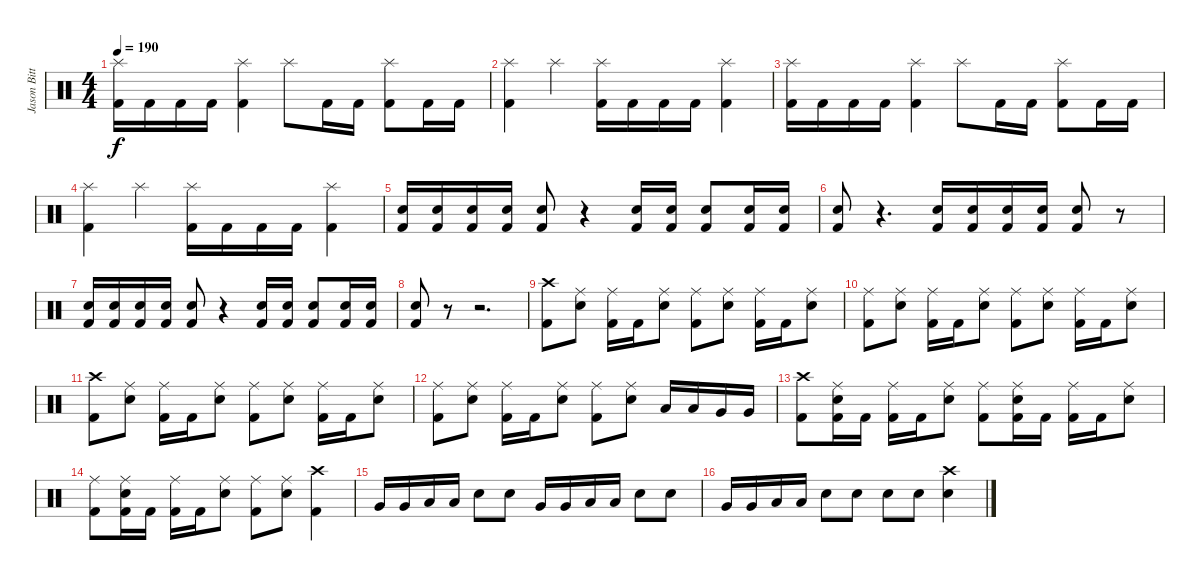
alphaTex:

\track ("Jason Bittner" "Jason Bitt") {instrument percussion}
\staff {score}
\articulation defaults
\ts (4 4)
\tempo 190
\clef neutral
\ks c
("Splash (hit)" "Kick (hit) 2").16{dy f} "Kick (hit) 2".16 "Kick (hit) 2".16 "Kick (hit) 2".16 ("Splash (hit)" "Kick (hit) 2").4 "Splash (hit)".8 "Kick (hit) 2".16 "Kick (hit) 2".16 ("Splash (hit)" "Kick (hit) 2").8 "Kick (hit) 2".16 "Kick (hit) 2".16 |
("Splash (hit)" "Kick (hit) 2").4 "Splash (hit)".4 ("Splash (hit)" "Kick (hit) 2").16 "Kick (hit) 2".16 "Kick (hit) 2".16 "Kick (hit) 2".16 ("Splash (hit)" "Kick (hit) 2").4 |
("Splash (hit)" "Kick (hit) 2").16 "Kick (hit) 2".16 "Kick (hit) 2".16 "Kick (hit) 2".16 ("Splash (hit)" "Kick (hit) 2").4 "Splash (hit)".8 "Kick (hit) 2".16 "Kick (hit) 2".16 ("Splash (hit)" "Kick (hit) 2").8 "Kick (hit) 2".16 "Kick (hit) 2".16 |
("Splash (hit)" "Kick (hit) 2").4 "Splash (hit)".4 ("Splash (hit)" "Kick (hit) 2").16 "Kick (hit) 2".16 "Kick (hit) 2".16 "Kick (hit) 2".16 ("Splash (hit)" "Kick (hit) 2").4 |
("Electric Snare (hit)" "Kick (hit) 2").16 ("Electric Snare (hit)" "Kick (hit) 2").16 ("Electric Snare (hit)" "Kick (hit) 2").16 ("Electric Snare (hit)" "Kick (hit) 2").16 ("Electric Snare (hit)" "Kick (hit) 2").8 r.4 ("Electric Snare (hit)" "Kick (hit) 2").16 ("Electric Snare (hit)" "Kick (hit) 2").16 ("Electric Snare (hit)" "Kick (hit) 2").8 ("Electric Snare (hit)" "Kick (hit) 2").16 ("Electric Snare (hit)" "Kick (hit) 2").16 |
("Electric Snare (hit)" "Kick (hit) 2").8 r.4{d} ("Electric Snare (hit)" "Kick (hit) 2").16 ("Electric Snare (hit)" "Kick (hit) 2").16 ("Electric Snare (hit)" "Kick (hit) 2").16 ("Electric Snare (hit)" "Kick (hit) 2").16 ("Electric Snare (hit)" "Kick (hit) 2").8 r.8 |
("Electric Snare (hit)" "Kick (hit) 2").16 ("Electric Snare (hit)" "Kick (hit) 2").16 ("Electric Snare (hit)" "Kick (hit) 2").16 ("Electric Snare (hit)" "Kick (hit) 2").16 ("Electric Snare (hit)" "Kick (hit) 2").8 r.4 ("Electric Snare (hit)" "Kick (hit) 2").16 ("Electric Snare (hit)" "Kick (hit) 2").16 ("Electric Snare (hit)" "Kick (hit) 2").8 ("Electric Snare (hit)" "Kick (hit) 2").16 ("Electric Snare (hit)" "Kick (hit) 2").16 |
("Electric Snare (hit)" "Kick (hit) 2").8 r.8 r.2{d} |
("Crash high (hit)" "Kick (hit) 2").8 ("Ride (middle)" "Electric Snare (hit)").8 ("Ride (middle)" "Kick (hit) 2").16 "Kick (hit) 2".16 ("Ride (middle)" "Electric Snare (hit)").8 ("Ride (middle)" "Kick (hit) 2").8 ("Ride (middle)" "Electric Snare (hit)").8 ("Ride (middle)" "Kick (hit) 2").16 "Kick (hit) 2".16 ("Ride (middle)" "Electric Snare (hit)").8 |
("Ride (middle)" "Kick (hit) 2").8 ("Ride (middle)" "Electric Snare (hit)").8 ("Ride (middle)" "Kick (hit) 2").16 "Kick (hit) 2".16 ("Ride (middle)" "Electric Snare (hit)").8 ("Ride (middle)" "Kick (hit) 2").8 ("Ride (middle)" "Electric Snare (hit)").8 ("Ride (middle)" "Kick (hit) 2").16 "Kick (hit) 2".16 ("Ride (middle)" "Electric Snare (hit)").8 |
("Crash high (hit)" "Kick (hit) 2").8 ("Ride (middle)" "Electric Snare (hit)").8 ("Ride (middle)" "Kick (hit) 2").16 "Kick (hit) 2".16 ("Ride (middle)" "Electric Snare (hit)").8 ("Ride (middle)" "Kick (hit) 2").8 ("Ride (middle)" "Electric Snare (hit)").8 ("Ride (middle)" "Kick (hit) 2").16 "Kick (hit) 2".16 ("Ride (middle)" "Electric Snare (hit)").8 |
("Ride (middle)" "Kick (hit) 2").8 ("Ride (middle)" "Electric Snare (hit)").8 ("Ride (middle)" "Kick (hit) 2").16 "Kick (hit) 2".16 ("Ride (middle)" "Electric Snare (hit)").8 ("Ride (middle)" "Kick (hit) 2").8 ("Ride (middle)" "Electric Snare (hit)").8 "Low Tom (hit)".16 "Low Tom (hit)".16 "Very Low Tom (hit)".16 "Very Low Tom (hit)".16 |
("Crash high (hit)" "Kick (hit) 2").8 ("Ride (middle)" "Electric Snare (hit)" "Kick (hit) 2").16 "Kick (hit) 2".16 ("Ride (middle)" "Kick (hit) 2").16 "Kick (hit) 2".16 ("Ride (middle)" "Electric Snare (hit)").8 ("Ride (middle)" "Kick (hit) 2").8 ("Ride (middle)" "Electric Snare (hit)" "Kick (hit) 2").16 "Kick (hit) 2".16 ("Ride (middle)" "Kick (hit) 2").16 "Kick (hit) 2".16 ("Ride (middle)" "Electric Snare (hit)").8 |
("Ride (middle)" "Kick (hit) 2").8 ("Ride (middle)" "Electric Snare (hit)" "Kick (hit) 2").16 "Kick (hit) 2".16 ("Ride (middle)" "Kick (hit) 2").16 "Kick (hit) 2".16 ("Ride (middle)" "Electric Snare (hit)").8 ("Ride (middle)" "Kick (hit) 2").8 ("Ride (middle)" "Electric Snare (hit)").8 ("Crash high (hit)" "Kick (hit) 2").4 |
"Very Low Tom (hit)".16 "Very Low Tom (hit)".16 "Low Tom (hit)".16 "Low Tom (hit)".16 "Electric Snare (hit)".8 "Electric Snare (hit)".8 "Very Low Tom (hit)".16 "Very Low Tom (hit)".16 "Low Tom (hit)".16 "Low Tom (hit)".16 "Electric Snare (hit)".8 "Electric Snare (hit)".8 |
"Very Low Tom (hit)".16 "Very Low Tom (hit)".16 "Low Tom (hit)".16 "Low Tom (hit)".16 "Electric Snare (hit)".8 "Electric Snare (hit)".8 "Electric Snare (hit)".8 "Electric Snare (hit)".8 ("Crash high (hit)" "Electric Snare (hit)").4
